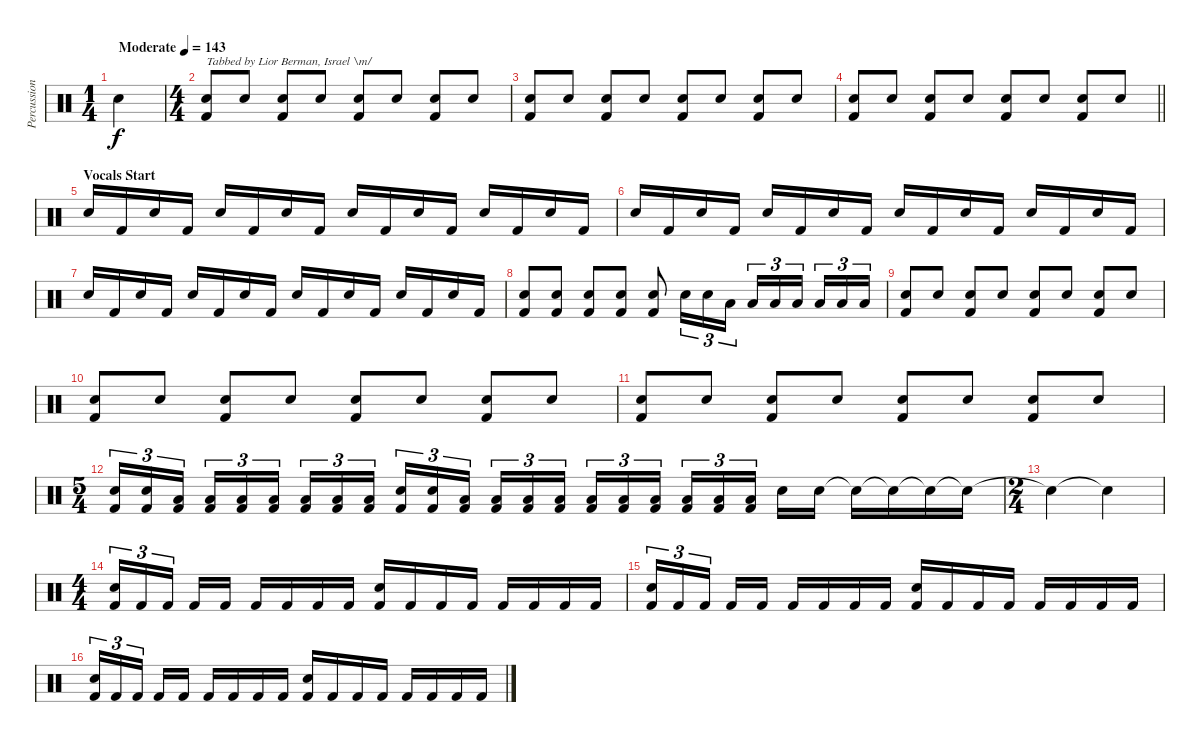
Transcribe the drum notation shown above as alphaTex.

\track ("Percussion" "Percussion") {instrument percussion}
\staff {score}
\articulation defaults
\ts (1 4)
\tempo (143 "Moderate")
\clef neutral
\ks c "Electric Snare (hit)".4{dy f}
|
\ts (4 4)
("Electric Snare (hit)" "Kick (hit) 2").8{txt "Tabbed by Lior Berman, Israel \\m/"} "Electric Snare (hit)".8 ("Electric Snare (hit)" "Kick (hit) 2").8 "Electric Snare (hit)".8 ("Electric Snare (hit)" "Kick (hit) 2").8 "Electric Snare (hit)".8 ("Electric Snare (hit)" "Kick (hit) 2").8 "Electric Snare (hit)".8 |
("Electric Snare (hit)" "Kick (hit) 2").8 "Electric Snare (hit)".8 ("Electric Snare (hit)" "Kick (hit) 2").8 "Electric Snare (hit)".8 ("Electric Snare (hit)" "Kick (hit) 2").8 "Electric Snare (hit)".8 ("Electric Snare (hit)" "Kick (hit) 2").8 "Electric Snare (hit)".8 |
\barLineRight lightlight
("Electric Snare (hit)" "Kick (hit) 2").8 "Electric Snare (hit)".8 ("Electric Snare (hit)" "Kick (hit) 2").8 "Electric Snare (hit)".8 ("Electric Snare (hit)" "Kick (hit) 2").8 "Electric Snare (hit)".8 ("Electric Snare (hit)" "Kick (hit) 2").8 "Electric Snare (hit)".8 |
\section ("" "Vocals Start")
"Electric Snare (hit)".16 "Kick (hit) 2".16 "Electric Snare (hit)".16 "Kick (hit) 2".16 "Electric Snare (hit)".16 "Kick (hit) 2".16 "Electric Snare (hit)".16 "Kick (hit) 2".16 "Electric Snare (hit)".16 "Kick (hit) 2".16 "Electric Snare (hit)".16 "Kick (hit) 2".16 "Electric Snare (hit)".16 "Kick (hit) 2".16 "Electric Snare (hit)".16 "Kick (hit) 2".16 |
"Electric Snare (hit)".16 "Kick (hit) 2".16 "Electric Snare (hit)".16 "Kick (hit) 2".16 "Electric Snare (hit)".16 "Kick (hit) 2".16 "Electric Snare (hit)".16 "Kick (hit) 2".16 "Electric Snare (hit)".16 "Kick (hit) 2".16 "Electric Snare (hit)".16 "Kick (hit) 2".16 "Electric Snare (hit)".16 "Kick (hit) 2".16 "Electric Snare (hit)".16 "Kick (hit) 2".16 |
"Electric Snare (hit)".16 "Kick (hit) 2".16 "Electric Snare (hit)".16 "Kick (hit) 2".16 "Electric Snare (hit)".16 "Kick (hit) 2".16 "Electric Snare (hit)".16 "Kick (hit) 2".16 "Electric Snare (hit)".16 "Kick (hit) 2".16 "Electric Snare (hit)".16 "Kick (hit) 2".16 "Electric Snare (hit)".16 "Kick (hit) 2".16 "Electric Snare (hit)".16 "Kick (hit) 2".16 |
("Electric Snare (hit)" "Kick (hit) 2").8 ("Electric Snare (hit)" "Kick (hit) 2").8 ("Electric Snare (hit)" "Kick (hit) 2").8 ("Electric Snare (hit)" "Kick (hit) 2").8 ("Electric Snare (hit)" "Kick (hit) 2").8 "Electric Snare (hit)".16{tu (3 2)} "Electric Snare (hit)".16{tu (3 2)} "Low Tom (hit)".16{tu (3 2)} "Low Tom (hit)".16{tu (3 2)} "Low Tom (hit)".16{tu (3 2)} "Low Tom (hit)".16{tu (3 2) beam splitsecondary} "Low Tom (hit)".16{tu (3 2)} "Low Tom (hit)".16{tu (3 2)} "Low Tom (hit)".16{tu (3 2)} |
("Electric Snare (hit)" "Kick (hit) 2").8 "Electric Snare (hit)".8 ("Electric Snare (hit)" "Kick (hit) 2").8 "Electric Snare (hit)".8 ("Electric Snare (hit)" "Kick (hit) 2").8 "Electric Snare (hit)".8 ("Electric Snare (hit)" "Kick (hit) 2").8 "Electric Snare (hit)".8 |
("Electric Snare (hit)" "Kick (hit) 2").8 "Electric Snare (hit)".8 ("Electric Snare (hit)" "Kick (hit) 2").8 "Electric Snare (hit)".8 ("Electric Snare (hit)" "Kick (hit) 2").8 "Electric Snare (hit)".8 ("Electric Snare (hit)" "Kick (hit) 2").8 "Electric Snare (hit)".8 |
("Electric Snare (hit)" "Kick (hit) 2").8 "Electric Snare (hit)".8 ("Electric Snare (hit)" "Kick (hit) 2").8 "Electric Snare (hit)".8 ("Electric Snare (hit)" "Kick (hit) 2").8 "Electric Snare (hit)".8 ("Electric Snare (hit)" "Kick (hit) 2").8 "Electric Snare (hit)".8 |
\ts (5 4)
("Electric Snare (hit)" "Kick (hit) 2").16{tu (3 2)} ("Electric Snare (hit)" "Kick (hit) 2").16{tu (3 2)} ("Low Floor Tom (hit)" "Kick (hit) 2").16{tu (3 2) beam splitsecondary} ("Low Tom (hit)" "Kick (hit) 2").16{tu (3 2)} ("Low Tom (hit)" "Kick (hit) 2").16{tu (3 2)} ("Low Tom (hit)" "Kick (hit) 2").16{tu (3 2)} ("Low Tom (hit)" "Kick (hit) 2").16{tu (3 2)} ("Low Tom (hit)" "Kick (hit) 2").16{tu (3 2)} ("Low Tom (hit)" "Kick (hit) 2").16{tu (3 2) beam splitsecondary} ("Electric Snare (hit)" "Kick (hit) 2").16{tu (3 2)} ("Electric Snare (hit)" "Kick (hit) 2").16{tu (3 2)} ("Low Floor Tom (hit)" "Kick (hit) 2").16{tu (3 2)} ("Low Tom (hit)" "Kick (hit) 2").16{tu (3 2)} ("Low Tom (hit)" "Kick (hit) 2").16{tu (3 2)} ("Low Tom (hit)" "Kick (hit) 2").16{tu (3 2) beam splitsecondary} ("Low Tom (hit)" "Kick (hit) 2").16{tu (3 2)} ("Low Tom (hit)" "Kick (hit) 2").16{tu (3 2)} ("Low Tom (hit)" "Kick (hit) 2").16{tu (3 2)} ("Low Tom (hit)" "Kick (hit) 2").16{tu (3 2)} ("Low Tom (hit)" "Kick (hit) 2").16{tu (3 2)} ("Low Tom (hit)" "Kick (hit) 2").16{tu (3 2) beam splitsecondary} "Electric Snare (hit)".16 "Electric Snare (hit)".16 "Snare (hit)"{t}.16 "Snare (hit)"{t}.16 "Snare (hit)"{t}.16 "Snare (hit)"{t}.16 |
\ts (2 4)
"Snare (hit)"{t}.4 "Snare (hit)"{t}.4 |
\ts (4 4)
("Electric Snare (hit)" "Kick (hit) 2").16{tu (3 2)} "Kick (hit) 2".16{tu (3 2)} "Kick (hit) 2".16{tu (3 2) beam splitsecondary} "Kick (hit) 2".16 "Kick (hit) 2".16 "Kick (hit) 2".16 "Kick (hit) 2".16 "Kick (hit) 2".16 "Kick (hit) 2".16 ("Electric Snare (hit)" "Kick (hit) 2").16 "Kick (hit) 2".16 "Kick (hit) 2".16 "Kick (hit) 2".16 "Kick (hit) 2".16 "Kick (hit) 2".16 "Kick (hit) 2".16 "Kick (hit) 2".16 |
("Electric Snare (hit)" "Kick (hit) 2").16{tu (3 2)} "Kick (hit) 2".16{tu (3 2)} "Kick (hit) 2".16{tu (3 2) beam splitsecondary} "Kick (hit) 2".16 "Kick (hit) 2".16 "Kick (hit) 2".16 "Kick (hit) 2".16 "Kick (hit) 2".16 "Kick (hit) 2".16 ("Electric Snare (hit)" "Kick (hit) 2").16 "Kick (hit) 2".16 "Kick (hit) 2".16 "Kick (hit) 2".16 "Kick (hit) 2".16 "Kick (hit) 2".16 "Kick (hit) 2".16 "Kick (hit) 2".16 |
("Electric Snare (hit)" "Kick (hit) 2").16{tu (3 2)} "Kick (hit) 2".16{tu (3 2)} "Kick (hit) 2".16{tu (3 2) beam splitsecondary} "Kick (hit) 2".16 "Kick (hit) 2".16 "Kick (hit) 2".16 "Kick (hit) 2".16 "Kick (hit) 2".16 "Kick (hit) 2".16 ("Electric Snare (hit)" "Kick (hit) 2").16 "Kick (hit) 2".16 "Kick (hit) 2".16 "Kick (hit) 2".16 "Kick (hit) 2".16 "Kick (hit) 2".16 "Kick (hit) 2".16 "Kick (hit) 2".16
